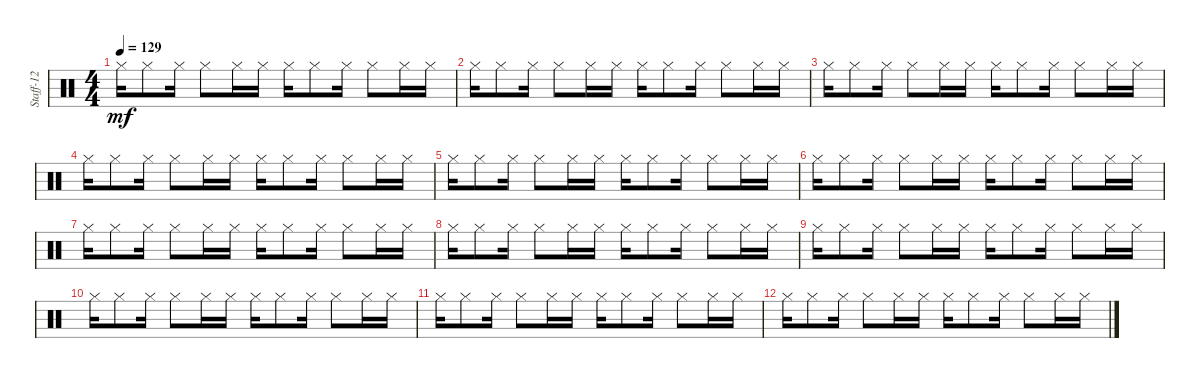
\track ("Staff-12" "Staff-12") {instrument percussion}
\staff {score}
\articulation defaults
\ts (4 4)
\tempo 129
\clef neutral
\ks c "Hi-Hat (closed)".16{dy mf} "Hi-Hat (closed)".8 "Hi-Hat (closed)".16 "Hi-Hat (closed)".8 "Hi-Hat (closed)".16 "Hi-Hat (closed)".16 "Hi-Hat (closed)".16 "Hi-Hat (closed)".8 "Hi-Hat (closed)".16 "Hi-Hat (closed)".8 "Hi-Hat (closed)".16 "Hi-Hat (closed)".16
|
"Hi-Hat (closed)".16 "Hi-Hat (closed)".8 "Hi-Hat (closed)".16 "Hi-Hat (closed)".8 "Hi-Hat (closed)".16 "Hi-Hat (closed)".16 "Hi-Hat (closed)".16 "Hi-Hat (closed)".8 "Hi-Hat (closed)".16 "Hi-Hat (closed)".8 "Hi-Hat (closed)".16 "Hi-Hat (closed)".16 |
"Hi-Hat (closed)".16 "Hi-Hat (closed)".8 "Hi-Hat (closed)".16 "Hi-Hat (closed)".8 "Hi-Hat (closed)".16 "Hi-Hat (closed)".16 "Hi-Hat (closed)".16 "Hi-Hat (closed)".8 "Hi-Hat (closed)".16 "Hi-Hat (closed)".8 "Hi-Hat (closed)".16 "Hi-Hat (closed)".16 |
"Hi-Hat (closed)".16 "Hi-Hat (closed)".8 "Hi-Hat (closed)".16 "Hi-Hat (closed)".8 "Hi-Hat (closed)".16 "Hi-Hat (closed)".16 "Hi-Hat (closed)".16 "Hi-Hat (closed)".8 "Hi-Hat (closed)".16 "Hi-Hat (closed)".8 "Hi-Hat (closed)".16 "Hi-Hat (closed)".16 |
"Hi-Hat (closed)".16 "Hi-Hat (closed)".8 "Hi-Hat (closed)".16 "Hi-Hat (closed)".8 "Hi-Hat (closed)".16 "Hi-Hat (closed)".16 "Hi-Hat (closed)".16 "Hi-Hat (closed)".8 "Hi-Hat (closed)".16 "Hi-Hat (closed)".8 "Hi-Hat (closed)".16 "Hi-Hat (closed)".16 |
"Hi-Hat (closed)".16 "Hi-Hat (closed)".8 "Hi-Hat (closed)".16 "Hi-Hat (closed)".8 "Hi-Hat (closed)".16 "Hi-Hat (closed)".16 "Hi-Hat (closed)".16 "Hi-Hat (closed)".8 "Hi-Hat (closed)".16 "Hi-Hat (closed)".8 "Hi-Hat (closed)".16 "Hi-Hat (closed)".16 |
"Hi-Hat (closed)".16 "Hi-Hat (closed)".8 "Hi-Hat (closed)".16 "Hi-Hat (closed)".8 "Hi-Hat (closed)".16 "Hi-Hat (closed)".16 "Hi-Hat (closed)".16 "Hi-Hat (closed)".8 "Hi-Hat (closed)".16 "Hi-Hat (closed)".8 "Hi-Hat (closed)".16 "Hi-Hat (closed)".16 |
"Hi-Hat (closed)".16 "Hi-Hat (closed)".8 "Hi-Hat (closed)".16 "Hi-Hat (closed)".8 "Hi-Hat (closed)".16 "Hi-Hat (closed)".16 "Hi-Hat (closed)".16 "Hi-Hat (closed)".8 "Hi-Hat (closed)".16 "Hi-Hat (closed)".8 "Hi-Hat (closed)".16 "Hi-Hat (closed)".16 |
"Hi-Hat (closed)".16 "Hi-Hat (closed)".8 "Hi-Hat (closed)".16 "Hi-Hat (closed)".8 "Hi-Hat (closed)".16 "Hi-Hat (closed)".16 "Hi-Hat (closed)".16 "Hi-Hat (closed)".8 "Hi-Hat (closed)".16 "Hi-Hat (closed)".8 "Hi-Hat (closed)".16 "Hi-Hat (closed)".16 |
"Hi-Hat (closed)".16 "Hi-Hat (closed)".8 "Hi-Hat (closed)".16 "Hi-Hat (closed)".8 "Hi-Hat (closed)".16 "Hi-Hat (closed)".16 "Hi-Hat (closed)".16 "Hi-Hat (closed)".8 "Hi-Hat (closed)".16 "Hi-Hat (closed)".8 "Hi-Hat (closed)".16 "Hi-Hat (closed)".16 |
"Hi-Hat (closed)".16 "Hi-Hat (closed)".8 "Hi-Hat (closed)".16 "Hi-Hat (closed)".8 "Hi-Hat (closed)".16 "Hi-Hat (closed)".16 "Hi-Hat (closed)".16 "Hi-Hat (closed)".8 "Hi-Hat (closed)".16 "Hi-Hat (closed)".8 "Hi-Hat (closed)".16 "Hi-Hat (closed)".16 |
"Hi-Hat (closed)".16 "Hi-Hat (closed)".8 "Hi-Hat (closed)".16 "Hi-Hat (closed)".8 "Hi-Hat (closed)".16 "Hi-Hat (closed)".16 "Hi-Hat (closed)".16 "Hi-Hat (closed)".8 "Hi-Hat (closed)".16 "Hi-Hat (closed)".8 "Hi-Hat (closed)".16 "Hi-Hat (closed)".16
